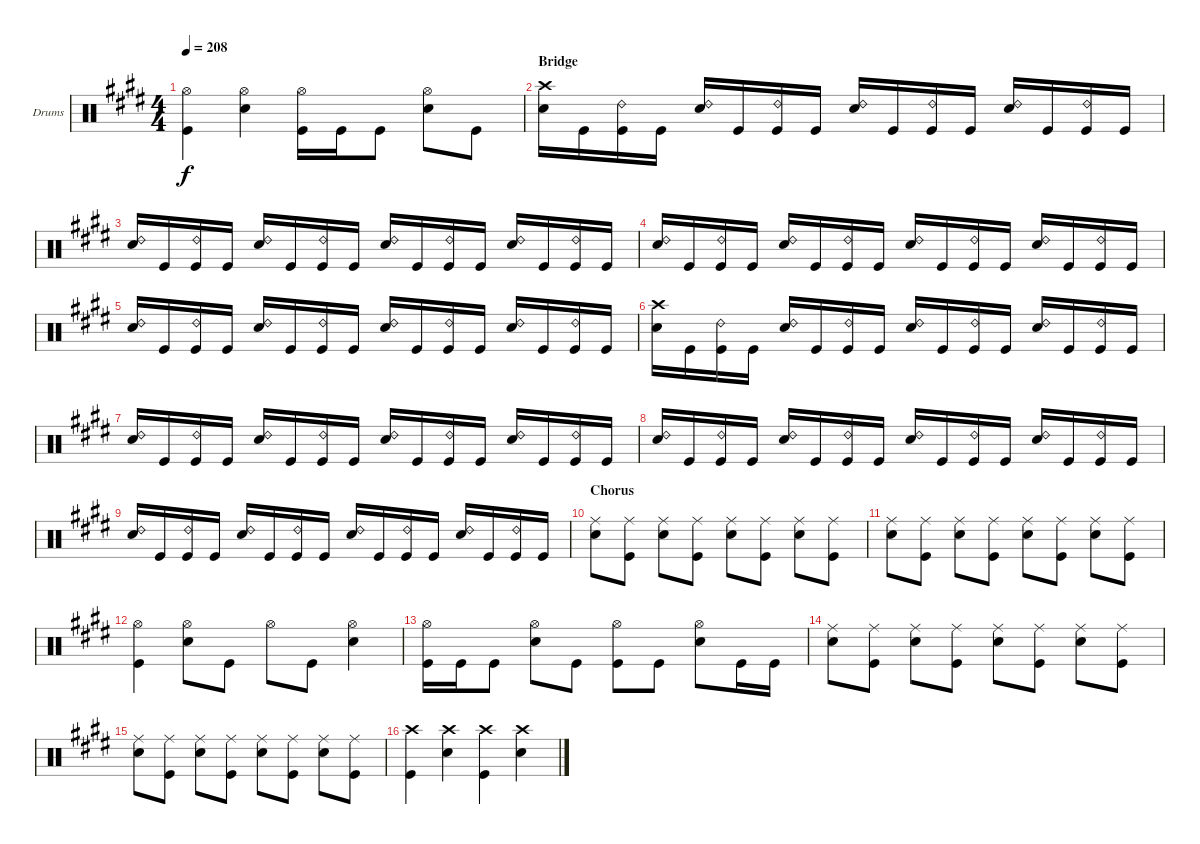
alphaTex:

\defaultSystemsLayout 4
\bracketExtendMode groupsimilarinstruments
\firstSystemTrackNameOrientation horizontal
\otherSystemsTrackNameOrientation horizontal
\track ("Corey Friedlander - Drums" "Drums") {instrument percussion}
\staff {score}
\articulation defaults
\ts (4 4)
\tempo 208
\clef neutral
\ks c#minor
("Hi-Hat (open)" "Kick (hit)").4{dy f} ("Snare (hit) 2" "Hi-Hat (open)").4 ("Kick (hit)" "Hi-Hat (open)").16 "Kick (hit)".16 "Kick (hit)".8 ("Hi-Hat (open)" "Snare (hit) 2").8 "Kick (hit)".8 |
\section ("" "Bridge")
("Snare (hit) 2" "Crash high (hit)").16 "Kick (hit)".16 ("Kick (hit)" "Ride (bell) 2").16 "Kick (hit)".16 ("Snare (hit) 2" "Ride (bell) 2").16 "Kick (hit)".16 ("Kick (hit)" "Ride (bell) 2").16 "Kick (hit)".16 ("Snare (hit) 2" "Ride (bell) 2").16 "Kick (hit)".16 ("Kick (hit)" "Ride (bell) 2").16 "Kick (hit)".16 ("Snare (hit) 2" "Ride (bell) 2").16 "Kick (hit)".16 ("Kick (hit)" "Ride (bell) 2").16 "Kick (hit)".16 |
("Snare (hit) 2" "Ride (bell) 2").16 "Kick (hit)".16 ("Kick (hit)" "Ride (bell) 2").16 "Kick (hit)".16 ("Snare (hit) 2" "Ride (bell) 2").16 "Kick (hit)".16 ("Kick (hit)" "Ride (bell) 2").16 "Kick (hit)".16 ("Snare (hit) 2" "Ride (bell) 2").16 "Kick (hit)".16 ("Kick (hit)" "Ride (bell) 2").16 "Kick (hit)".16 ("Snare (hit) 2" "Ride (bell) 2").16 "Kick (hit)".16 ("Kick (hit)" "Ride (bell) 2").16 "Kick (hit)".16 |
("Snare (hit) 2" "Ride (bell) 2").16 "Kick (hit)".16 ("Kick (hit)" "Ride (bell) 2").16 "Kick (hit)".16 ("Snare (hit) 2" "Ride (bell) 2").16 "Kick (hit)".16 ("Kick (hit)" "Ride (bell) 2").16 "Kick (hit)".16 ("Snare (hit) 2" "Ride (bell) 2").16 "Kick (hit)".16 ("Kick (hit)" "Ride (bell) 2").16 "Kick (hit)".16 ("Snare (hit) 2" "Ride (bell) 2").16 "Kick (hit)".16 ("Kick (hit)" "Ride (bell) 2").16 "Kick (hit)".16 |
("Snare (hit) 2" "Ride (bell) 2").16 "Kick (hit)".16 ("Kick (hit)" "Ride (bell) 2").16 "Kick (hit)".16 ("Snare (hit) 2" "Ride (bell) 2").16 "Kick (hit)".16 ("Kick (hit)" "Ride (bell) 2").16 "Kick (hit)".16 ("Snare (hit) 2" "Ride (bell) 2").16 "Kick (hit)".16 ("Kick (hit)" "Ride (bell) 2").16 "Kick (hit)".16 ("Snare (hit) 2" "Ride (bell) 2").16 "Kick (hit)".16 ("Kick (hit)" "Ride (bell) 2").16 "Kick (hit)".16 |
("Snare (hit) 2" "Crash high (hit)").16 "Kick (hit)".16 ("Kick (hit)" "Ride (bell) 2").16 "Kick (hit)".16 ("Snare (hit) 2" "Ride (bell) 2").16 "Kick (hit)".16 ("Kick (hit)" "Ride (bell) 2").16 "Kick (hit)".16 ("Snare (hit) 2" "Ride (bell) 2").16 "Kick (hit)".16 ("Kick (hit)" "Ride (bell) 2").16 "Kick (hit)".16 ("Snare (hit) 2" "Ride (bell) 2").16 "Kick (hit)".16 ("Kick (hit)" "Ride (bell) 2").16 "Kick (hit)".16 |
("Snare (hit) 2" "Ride (bell) 2").16 "Kick (hit)".16 ("Kick (hit)" "Ride (bell) 2").16 "Kick (hit)".16 ("Snare (hit) 2" "Ride (bell) 2").16 "Kick (hit)".16 ("Kick (hit)" "Ride (bell) 2").16 "Kick (hit)".16 ("Snare (hit) 2" "Ride (bell) 2").16 "Kick (hit)".16 ("Kick (hit)" "Ride (bell) 2").16 "Kick (hit)".16 ("Snare (hit) 2" "Ride (bell) 2").16 "Kick (hit)".16 ("Kick (hit)" "Ride (bell) 2").16 "Kick (hit)".16 |
("Snare (hit) 2" "Ride (bell) 2").16 "Kick (hit)".16 ("Kick (hit)" "Ride (bell) 2").16 "Kick (hit)".16 ("Snare (hit) 2" "Ride (bell) 2").16 "Kick (hit)".16 ("Kick (hit)" "Ride (bell) 2").16 "Kick (hit)".16 ("Snare (hit) 2" "Ride (bell) 2").16 "Kick (hit)".16 ("Kick (hit)" "Ride (bell) 2").16 "Kick (hit)".16 ("Snare (hit) 2" "Ride (bell) 2").16 "Kick (hit)".16 ("Kick (hit)" "Ride (bell) 2").16 "Kick (hit)".16 |
("Snare (hit) 2" "Ride (bell) 2").16 "Kick (hit)".16 ("Kick (hit)" "Ride (bell) 2").16 "Kick (hit)".16 ("Snare (hit) 2" "Ride (bell) 2").16 "Kick (hit)".16 ("Kick (hit)" "Ride (bell) 2").16 "Kick (hit)".16 ("Snare (hit) 2" "Ride (bell) 2").16 "Kick (hit)".16 ("Kick (hit)" "Ride (bell) 2").16 "Kick (hit)".16 ("Snare (hit) 2" "Ride (bell) 2").16 "Kick (hit)".16 ("Kick (hit)" "Ride (bell) 2").16 "Kick (hit)".16 |
\section ("" "Chorus")
("Snare (hit) 2" "Ride (middle)").8 ("Kick (hit)" "Ride (middle)").8 ("Snare (hit) 2" "Ride (middle)").8 ("Kick (hit)" "Ride (middle)").8 ("Snare (hit) 2" "Ride (middle)").8 ("Kick (hit)" "Ride (middle)").8 ("Snare (hit) 2" "Ride (middle)").8 ("Kick (hit)" "Ride (middle)").8 |
("Snare (hit) 2" "Ride (middle)").8 ("Kick (hit)" "Ride (middle)").8 ("Snare (hit) 2" "Ride (middle)").8 ("Kick (hit)" "Ride (middle)").8 ("Snare (hit) 2" "Ride (middle)").8 ("Kick (hit)" "Ride (middle)").8 ("Snare (hit) 2" "Ride (middle)").8 ("Kick (hit)" "Ride (middle)").8 |
("Kick (hit)" "Hi-Hat (open)").4 ("Snare (hit) 2" "Hi-Hat (open)").8 "Kick (hit)".8 "Hi-Hat (open)".8 "Kick (hit)".8 ("Snare (hit) 2" "Hi-Hat (open)").4 |
("Kick (hit)" "Hi-Hat (open)").16 "Kick (hit)".16 "Kick (hit)".8 ("Snare (hit) 2" "Hi-Hat (open)").8 "Kick (hit)".8 ("Kick (hit)" "Hi-Hat (open)").8 "Kick (hit)".8 ("Snare (hit) 2" "Hi-Hat (open)").8 "Kick (hit)".16 "Kick (hit)".16 |
("Snare (hit) 2" "Ride (middle)").8 ("Kick (hit)" "Ride (middle)").8 ("Snare (hit) 2" "Ride (middle)").8 ("Kick (hit)" "Ride (middle)").8 ("Snare (hit) 2" "Ride (middle)").8 ("Kick (hit)" "Ride (middle)").8 ("Snare (hit) 2" "Ride (middle)").8 ("Kick (hit)" "Ride (middle)").8 |
("Snare (hit) 2" "Ride (middle)").8 ("Kick (hit)" "Ride (middle)").8 ("Snare (hit) 2" "Ride (middle)").8 ("Kick (hit)" "Ride (middle)").8 ("Snare (hit) 2" "Ride (middle)").8 ("Kick (hit)" "Ride (middle)").8 ("Snare (hit) 2" "Ride (middle)").8 ("Kick (hit)" "Ride (middle)").8 |
("Kick (hit)" "Crash high (hit)").4 ("Snare (hit) 2" "Crash high (hit)").4 ("Kick (hit)" "Crash high (hit)").4 ("Snare (hit) 2" "Crash high (hit)").4
